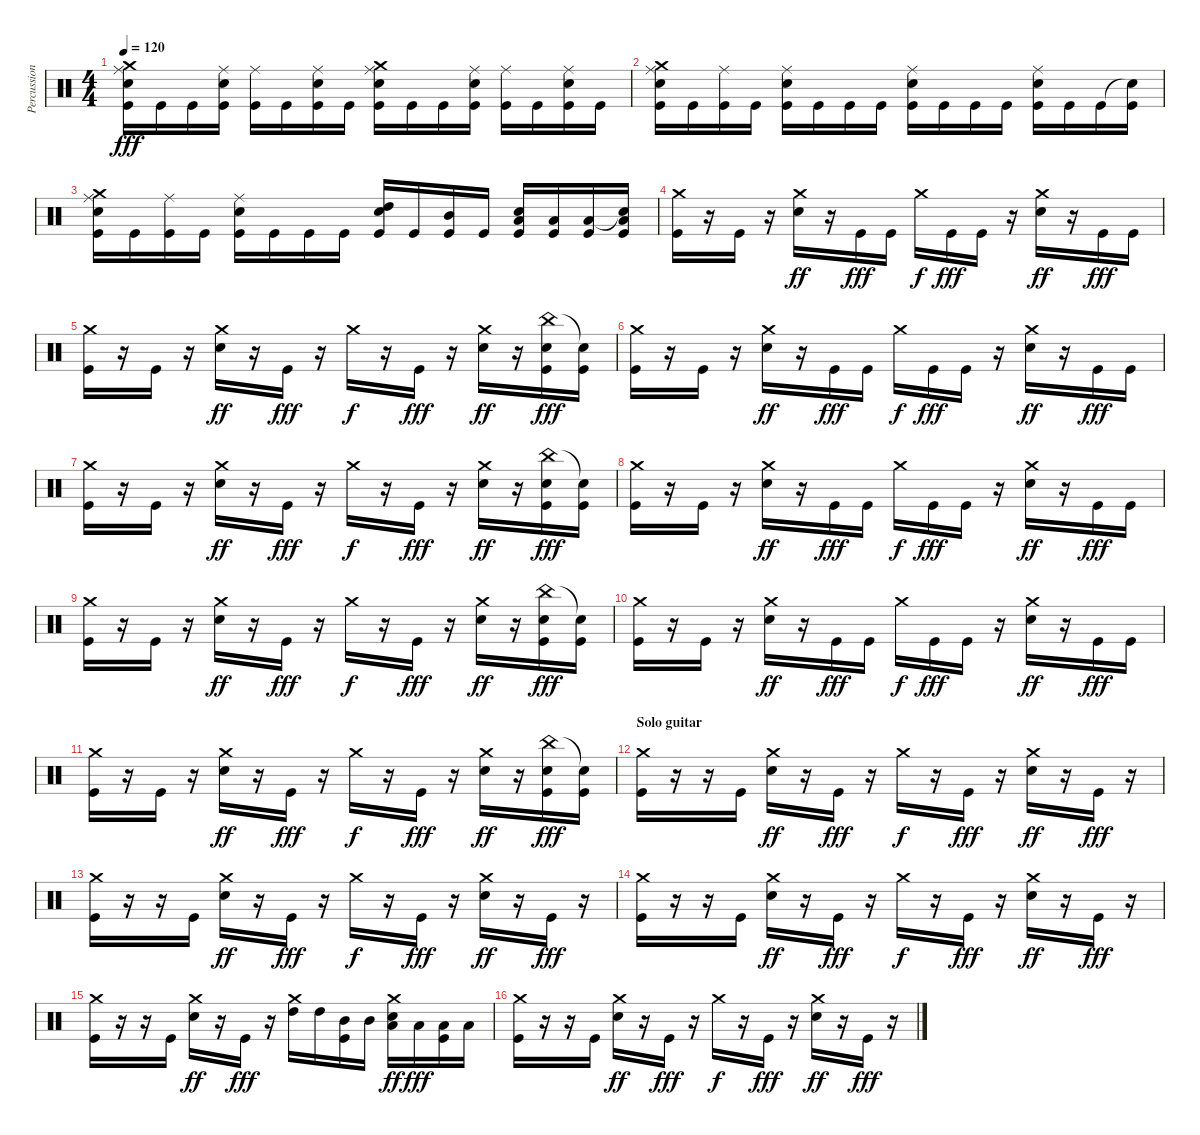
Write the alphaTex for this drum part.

\track ("Percussions" "Percussion") {instrument percussion}
\staff {score}
\articulation defaults
\ts (4 4)
\tempo 120
\clef neutral
\ks c
("Crash medium (hit)" "Ride (middle)" "Snare (hit) 2" "Kick (hit)").16{dy fff} "Kick (hit)".16 "Kick (hit)".16 ("Ride (middle)" "Snare (hit) 2" "Kick (hit)").16 ("Ride (middle)" "Kick (hit)").16 "Kick (hit)".16 ("Ride (middle)" "Snare (hit) 2" "Kick (hit)").16 "Kick (hit)".16 ("Crash medium (hit)" "Ride (middle)" "Snare (hit) 2" "Kick (hit)").16 "Kick (hit)".16 "Kick (hit)".16 ("Ride (middle)" "Snare (hit) 2" "Kick (hit)").16 ("Ride (middle)" "Kick (hit)").16 "Kick (hit)".16 ("Ride (middle)" "Snare (hit) 2" "Kick (hit)").16 "Kick (hit)".16 |
("Ride (middle)" "Crash medium (hit)" "Snare (hit) 2" "Kick (hit)").16 "Kick (hit)".16 ("Ride (middle)" "Kick (hit)").16 "Kick (hit)".16 ("Ride (middle)" "Snare (hit) 2" "Kick (hit)").16 "Kick (hit)".16 "Kick (hit)".16 "Kick (hit)".16 ("Ride (middle)" "Snare (hit) 2" "Kick (hit)").16 "Kick (hit)".16 "Kick (hit)".16 "Kick (hit)".16 ("Ride (middle)" "Snare (hit) 2" "Kick (hit)").16 "Kick (hit)".16 "Kick (hit)".16 ("Snare (hit)"{t} "Kick (hit)").16 |
("Ride (middle)" "Crash medium (hit)" "Snare (hit) 2" "Kick (hit)").16 "Kick (hit)".16 ("Ride (middle)" "Kick (hit)").16 "Kick (hit)".16 ("Ride (middle)" "Snare (hit) 2" "Kick (hit)").16 "Kick (hit)".16 "Kick (hit)".16 "Kick (hit)".16 ("High Tom (hit)" "Snare (hit) 2" "Kick (hit)").16 "Kick (hit)".16 ("Mid Tom (hit)" "Kick (hit)").16 "Kick (hit)".16 ("Low Tom (hit)" "Snare (hit) 2" "Kick (hit)").16 ("Low Tom (hit)" "Kick (hit)").16 ("Low Floor Tom (hit)" "Kick (hit)").16 ("Snare (hit)"{t} "Low Floor Tom (hit)" "Kick (hit)").16 |
("Crash medium (hit)" "Kick (hit)").16 r.16 "Kick (hit)".16 r.16 ("Crash medium (hit)" "Electric Snare (hit)").16{dy ff} r.16 "Kick (hit)".16{dy fff} "Kick (hit)".16 "Crash medium (hit)".16{dy f} "Kick (hit)".16{dy fff} "Kick (hit)".16 r.16 ("Crash medium (hit)" "Electric Snare (hit)").16{dy ff} r.16 "Kick (hit)".16{dy fff} "Kick (hit)".16 |
("Crash medium (hit)" "Kick (hit)").16 r.16 "Kick (hit)".16 r.16 ("Crash medium (hit)" "Electric Snare (hit)").16{dy ff} r.16 "Kick (hit)".16{dy fff} r.16 "Crash medium (hit)".16{dy f} r.16 "Kick (hit)".16{dy fff} r.16 ("Crash medium (hit)" "Electric Snare (hit)").16{dy ff} r.16 ("China (hit)" "Electric Snare (hit)" "Kick (hit)").16{dy fff} ("Snare (hit)"{t} "Kick (hit)").16 |
("Crash medium (hit)" "Kick (hit)").16 r.16 "Kick (hit)".16 r.16 ("Crash medium (hit)" "Electric Snare (hit)").16{dy ff} r.16 "Kick (hit)".16{dy fff} "Kick (hit)".16 "Crash medium (hit)".16{dy f} "Kick (hit)".16{dy fff} "Kick (hit)".16 r.16 ("Crash medium (hit)" "Electric Snare (hit)").16{dy ff} r.16 "Kick (hit)".16{dy fff} "Kick (hit)".16 |
("Crash medium (hit)" "Kick (hit)").16 r.16 "Kick (hit)".16 r.16 ("Crash medium (hit)" "Electric Snare (hit)").16{dy ff} r.16 "Kick (hit)".16{dy fff} r.16 "Crash medium (hit)".16{dy f} r.16 "Kick (hit)".16{dy fff} r.16 ("Crash medium (hit)" "Electric Snare (hit)").16{dy ff} r.16 ("China (hit)" "Electric Snare (hit)" "Kick (hit)").16{dy fff} ("Snare (hit)"{t} "Kick (hit)").16 |
("Crash medium (hit)" "Kick (hit)").16 r.16 "Kick (hit)".16 r.16 ("Crash medium (hit)" "Electric Snare (hit)").16{dy ff} r.16 "Kick (hit)".16{dy fff} "Kick (hit)".16 "Crash medium (hit)".16{dy f} "Kick (hit)".16{dy fff} "Kick (hit)".16 r.16 ("Crash medium (hit)" "Electric Snare (hit)").16{dy ff} r.16 "Kick (hit)".16{dy fff} "Kick (hit)".16 |
("Crash medium (hit)" "Kick (hit)").16 r.16 "Kick (hit)".16 r.16 ("Crash medium (hit)" "Electric Snare (hit)").16{dy ff} r.16 "Kick (hit)".16{dy fff} r.16 "Crash medium (hit)".16{dy f} r.16 "Kick (hit)".16{dy fff} r.16 ("Crash medium (hit)" "Electric Snare (hit)").16{dy ff} r.16 ("China (hit)" "Electric Snare (hit)" "Kick (hit)").16{dy fff} ("Snare (hit)"{t} "Kick (hit)").16 |
("Crash medium (hit)" "Kick (hit)").16 r.16 "Kick (hit)".16 r.16 ("Crash medium (hit)" "Electric Snare (hit)").16{dy ff} r.16 "Kick (hit)".16{dy fff} "Kick (hit)".16 "Crash medium (hit)".16{dy f} "Kick (hit)".16{dy fff} "Kick (hit)".16 r.16 ("Crash medium (hit)" "Electric Snare (hit)").16{dy ff} r.16 "Kick (hit)".16{dy fff} "Kick (hit)".16 |
("Crash medium (hit)" "Kick (hit)").16 r.16 "Kick (hit)".16 r.16 ("Crash medium (hit)" "Electric Snare (hit)").16{dy ff} r.16 "Kick (hit)".16{dy fff} r.16 "Crash medium (hit)".16{dy f} r.16 "Kick (hit)".16{dy fff} r.16 ("Crash medium (hit)" "Electric Snare (hit)").16{dy ff} r.16 ("China (hit)" "Electric Snare (hit)" "Kick (hit)").16{dy fff} ("Snare (hit)"{t} "Kick (hit)").16 |
\section ("" "Solo guitar")
("Crash medium (hit)" "Kick (hit)").16 r.16 r.16 "Kick (hit)".16 ("Crash medium (hit)" "Electric Snare (hit)").16{dy ff} r.16 "Kick (hit)".16{dy fff} r.16 "Crash medium (hit)".16{dy f} r.16 "Kick (hit)".16{dy fff} r.16 ("Crash medium (hit)" "Electric Snare (hit)").16{dy ff} r.16 "Kick (hit)".16{dy fff} r.16 |
("Crash medium (hit)" "Kick (hit)").16 r.16 r.16 "Kick (hit)".16 ("Crash medium (hit)" "Electric Snare (hit)").16{dy ff} r.16 "Kick (hit)".16{dy fff} r.16 "Crash medium (hit)".16{dy f} r.16 "Kick (hit)".16{dy fff} r.16 ("Crash medium (hit)" "Electric Snare (hit)").16{dy ff} r.16 "Kick (hit)".16{dy fff} r.16 |
("Crash medium (hit)" "Kick (hit)").16 r.16 r.16 "Kick (hit)".16 ("Crash medium (hit)" "Electric Snare (hit)").16{dy ff} r.16 "Kick (hit)".16{dy fff} r.16 "Crash medium (hit)".16{dy f} r.16 "Kick (hit)".16{dy fff} r.16 ("Crash medium (hit)" "Electric Snare (hit)").16{dy ff} r.16 "Kick (hit)".16{dy fff} r.16 |
("Crash medium (hit)" "Kick (hit)").16 r.16 r.16 "Kick (hit)".16 ("Crash medium (hit)" "Electric Snare (hit)").16{dy ff} r.16 "Kick (hit)".16{dy fff} r.16 ("Crash medium (hit)" "High Tom (hit)").16 "High Tom (hit)".16 ("Mid Tom (hit)" "Kick (hit)").16 "Mid Tom (hit)".16 ("Crash medium (hit)" "Low Tom (hit)" "Electric Snare (hit)").16{dy ff} "Low Tom (hit)".16{dy fff} ("Low Floor Tom (hit)" "Kick (hit)").16 "Low Floor Tom (hit)".16 |
("Crash medium (hit)" "Kick (hit)").16 r.16 r.16 "Kick (hit)".16 ("Crash medium (hit)" "Electric Snare (hit)").16{dy ff} r.16 "Kick (hit)".16{dy fff} r.16 "Crash medium (hit)".16{dy f} r.16 "Kick (hit)".16{dy fff} r.16 ("Crash medium (hit)" "Electric Snare (hit)").16{dy ff} r.16 "Kick (hit)".16{dy fff} r.16
